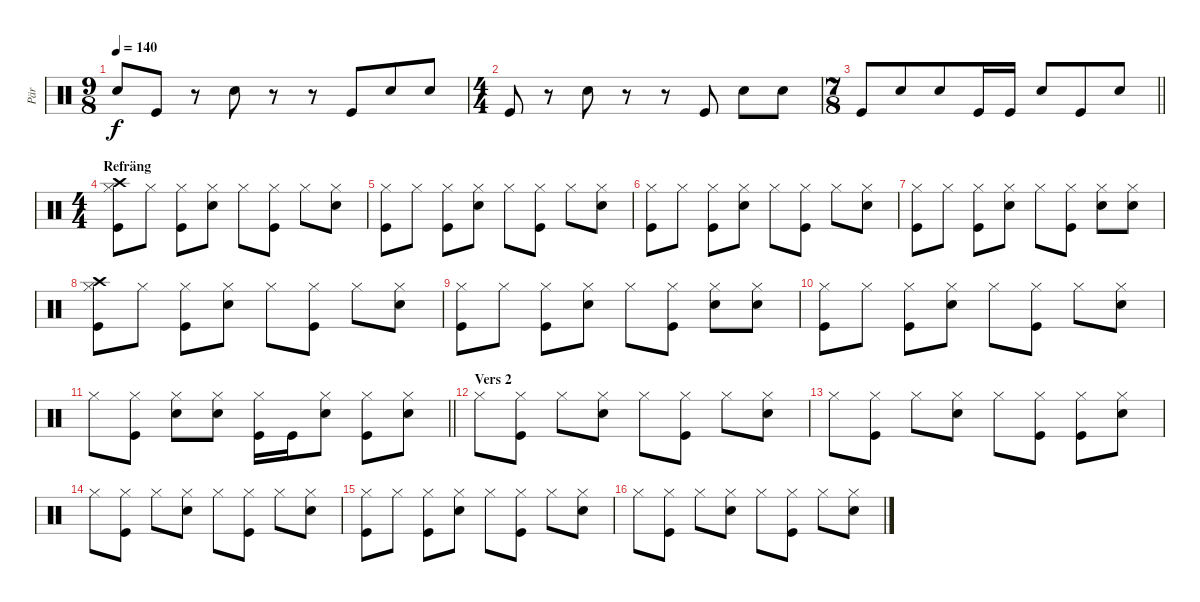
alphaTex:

\track ("Pär" "Pär") {instrument percussion}
\staff {score}
\articulation defaults
\ts (9 8)
\tempo 140
\clef neutral
\ks c "Snare (hit) 2".8{dy f} "Kick (hit)".8
r.8 "Snare (hit) 2".8 r.8 r.8 "Kick (hit)".8 "Snare (hit) 2".8 "Snare (hit) 2".8 |
\ts (4 4)
"Kick (hit)".8 r.8 "Snare (hit) 2".8 r.8 r.8 "Kick (hit)".8 "Snare (hit) 2".8 "Snare (hit) 2".8 |
\ts (7 8)
\barLineRight lightlight "Kick (hit)".8 "Snare (hit) 2".8 "Snare (hit) 2".8 "Kick (hit)".16 "Kick (hit)".16 "Snare (hit) 2".8 "Kick (hit)".8 "Snare (hit) 2".8
|
\ts (4 4)
\section ("" "Refräng")
("Hi-Hat (closed)" "Crash high (hit)" "Kick (hit)").8 "Hi-Hat (closed)".8 ("Hi-Hat (closed)" "Kick (hit)").8 ("Hi-Hat (closed)" "Snare (hit) 2").8 "Hi-Hat (closed)".8 ("Hi-Hat (closed)" "Kick (hit)").8 "Hi-Hat (closed)".8 ("Hi-Hat (closed)" "Snare (hit) 2").8 |
("Hi-Hat (closed)" "Kick (hit)").8 "Hi-Hat (closed)".8 ("Hi-Hat (closed)" "Kick (hit)").8 ("Hi-Hat (closed)" "Snare (hit) 2").8 "Hi-Hat (closed)".8 ("Hi-Hat (closed)" "Kick (hit)").8 "Hi-Hat (closed)".8 ("Hi-Hat (closed)" "Snare (hit) 2").8 |
("Hi-Hat (closed)" "Kick (hit)").8 "Hi-Hat (closed)".8 ("Hi-Hat (closed)" "Kick (hit)").8 ("Hi-Hat (closed)" "Snare (hit) 2").8 "Hi-Hat (closed)".8 ("Hi-Hat (closed)" "Kick (hit)").8 "Hi-Hat (closed)".8 ("Hi-Hat (closed)" "Snare (hit) 2").8 |
("Hi-Hat (closed)" "Kick (hit)").8 "Hi-Hat (closed)".8 ("Hi-Hat (closed)" "Kick (hit)").8 ("Hi-Hat (closed)" "Snare (hit) 2").8 "Hi-Hat (closed)".8 ("Hi-Hat (closed)" "Kick (hit)").8 ("Hi-Hat (closed)" "Snare (hit) 2").8 ("Hi-Hat (closed)" "Snare (hit) 2").8 |
("Hi-Hat (closed)" "Crash high (hit)" "Kick (hit)").8 "Hi-Hat (closed)".8 ("Hi-Hat (closed)" "Kick (hit)").8 ("Hi-Hat (closed)" "Snare (hit) 2").8 "Hi-Hat (closed)".8 ("Hi-Hat (closed)" "Kick (hit)").8 "Hi-Hat (closed)".8 ("Hi-Hat (closed)" "Snare (hit) 2").8 |
("Hi-Hat (closed)" "Kick (hit)").8 "Hi-Hat (closed)".8 ("Hi-Hat (closed)" "Kick (hit)").8 ("Hi-Hat (closed)" "Snare (hit) 2").8 "Hi-Hat (closed)".8 ("Hi-Hat (closed)" "Kick (hit)").8 ("Hi-Hat (closed)" "Snare (hit) 2").8 ("Hi-Hat (closed)" "Snare (hit) 2").8 |
("Hi-Hat (closed)" "Kick (hit)").8 "Hi-Hat (closed)".8 ("Hi-Hat (closed)" "Kick (hit)").8 ("Hi-Hat (closed)" "Snare (hit) 2").8 "Hi-Hat (closed)".8 ("Hi-Hat (closed)" "Kick (hit)").8 "Hi-Hat (closed)".8 ("Hi-Hat (closed)" "Snare (hit) 2").8 |
\barLineRight lightlight "Hi-Hat (closed)".8
("Hi-Hat (closed)" "Kick (hit)").8 ("Hi-Hat (closed)" "Snare (hit) 2").8 ("Hi-Hat (closed)" "Snare (hit) 2").8 ("Hi-Hat (closed)" "Kick (hit)").16 "Kick (hit)".16 ("Hi-Hat (closed)" "Snare (hit) 2").8 ("Hi-Hat (closed)" "Kick (hit)").8 ("Hi-Hat (closed)" "Snare (hit) 2").8 |
\section ("" "Vers 2")
"Hi-Hat (closed)".8 ("Hi-Hat (closed)" "Kick (hit)").8 "Hi-Hat (closed)".8 ("Hi-Hat (closed)" "Snare (hit) 2").8 "Hi-Hat (closed)".8 ("Hi-Hat (closed)" "Kick (hit)").8 "Hi-Hat (closed)".8 ("Hi-Hat (closed)" "Snare (hit) 2").8 |
"Hi-Hat (closed)".8 ("Hi-Hat (closed)" "Kick (hit)").8 "Hi-Hat (closed)".8 ("Hi-Hat (closed)" "Snare (hit) 2").8 "Hi-Hat (closed)".8 ("Hi-Hat (closed)" "Kick (hit)").8 ("Hi-Hat (closed)" "Kick (hit)").8 ("Hi-Hat (closed)" "Snare (hit) 2").8 |
"Hi-Hat (closed)".8 ("Hi-Hat (closed)" "Kick (hit)").8 "Hi-Hat (closed)".8 ("Hi-Hat (closed)" "Snare (hit) 2").8 "Hi-Hat (closed)".8 ("Hi-Hat (closed)" "Kick (hit)").8 "Hi-Hat (closed)".8 ("Hi-Hat (closed)" "Snare (hit) 2").8 |
("Hi-Hat (closed)" "Kick (hit)").8 "Hi-Hat (closed)".8 ("Hi-Hat (closed)" "Kick (hit)").8 ("Hi-Hat (closed)" "Snare (hit) 2").8 "Hi-Hat (closed)".8 ("Hi-Hat (closed)" "Kick (hit)").8 "Hi-Hat (closed)".8 ("Hi-Hat (closed)" "Snare (hit) 2").8 |
"Hi-Hat (closed)".8 ("Hi-Hat (closed)" "Kick (hit)").8 "Hi-Hat (closed)".8 ("Hi-Hat (closed)" "Snare (hit) 2").8 "Hi-Hat (closed)".8 ("Hi-Hat (closed)" "Kick (hit)").8 "Hi-Hat (closed)".8 ("Hi-Hat (closed)" "Snare (hit) 2").8
